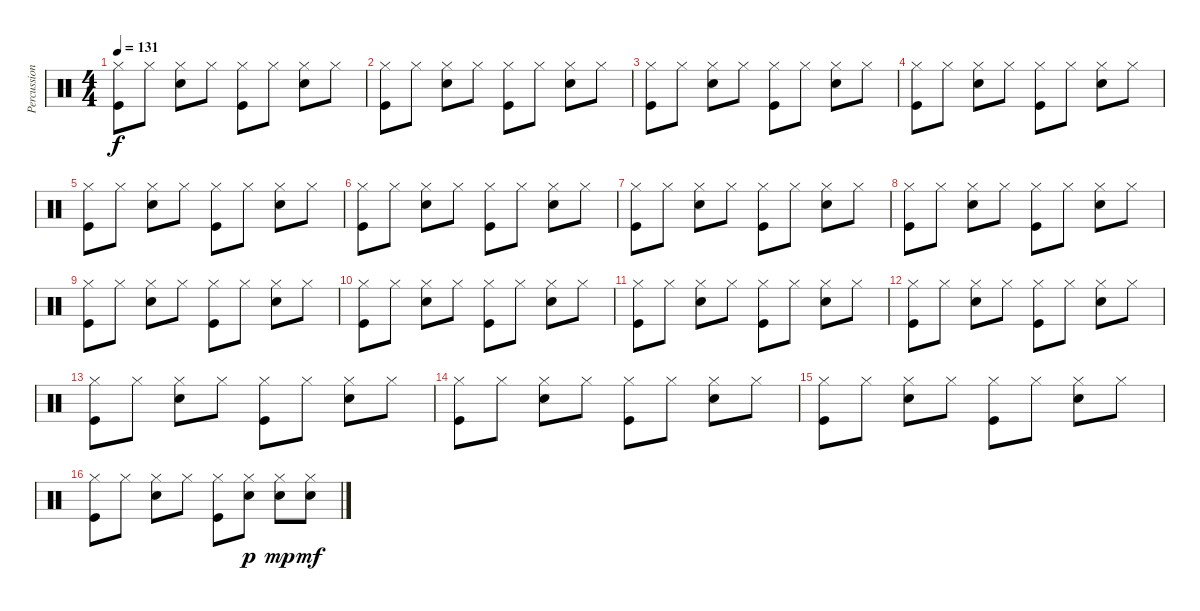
\track ("Percussions" "Percussion") {instrument percussion}
\staff {score}
\articulation defaults
\ts (4 4)
\tempo 131
\clef neutral
\ks c
("Hi-Hat (closed)" "Kick (hit)").8{dy f} "Hi-Hat (closed)".8 ("Hi-Hat (closed)" "Snare (hit) 2").8 "Hi-Hat (closed)".8 ("Hi-Hat (closed)" "Kick (hit)").8 "Hi-Hat (closed)".8 ("Hi-Hat (closed)" "Snare (hit) 2").8 "Hi-Hat (closed)".8 |
("Hi-Hat (closed)" "Kick (hit)").8 "Hi-Hat (closed)".8 ("Hi-Hat (closed)" "Snare (hit) 2").8 "Hi-Hat (closed)".8 ("Hi-Hat (closed)" "Kick (hit)").8 "Hi-Hat (closed)".8 ("Hi-Hat (closed)" "Snare (hit) 2").8 "Hi-Hat (closed)".8 |
("Hi-Hat (closed)" "Kick (hit)").8 "Hi-Hat (closed)".8 ("Hi-Hat (closed)" "Snare (hit) 2").8 "Hi-Hat (closed)".8 ("Hi-Hat (closed)" "Kick (hit)").8 "Hi-Hat (closed)".8 ("Hi-Hat (closed)" "Snare (hit) 2").8 "Hi-Hat (closed)".8 |
("Hi-Hat (closed)" "Kick (hit)").8 "Hi-Hat (closed)".8 ("Hi-Hat (closed)" "Snare (hit) 2").8 "Hi-Hat (closed)".8 ("Hi-Hat (closed)" "Kick (hit)").8 "Hi-Hat (closed)".8 ("Hi-Hat (closed)" "Snare (hit) 2").8 "Hi-Hat (closed)".8 |
("Hi-Hat (closed)" "Kick (hit)").8 "Hi-Hat (closed)".8 ("Hi-Hat (closed)" "Snare (hit) 2").8 "Hi-Hat (closed)".8 ("Hi-Hat (closed)" "Kick (hit)").8 "Hi-Hat (closed)".8 ("Hi-Hat (closed)" "Snare (hit) 2").8 "Hi-Hat (closed)".8 |
("Hi-Hat (closed)" "Kick (hit)").8 "Hi-Hat (closed)".8 ("Hi-Hat (closed)" "Snare (hit) 2").8 "Hi-Hat (closed)".8 ("Hi-Hat (closed)" "Kick (hit)").8 "Hi-Hat (closed)".8 ("Hi-Hat (closed)" "Snare (hit) 2").8 "Hi-Hat (closed)".8 |
("Hi-Hat (closed)" "Kick (hit)").8 "Hi-Hat (closed)".8 ("Hi-Hat (closed)" "Snare (hit) 2").8 "Hi-Hat (closed)".8 ("Hi-Hat (closed)" "Kick (hit)").8 "Hi-Hat (closed)".8 ("Hi-Hat (closed)" "Snare (hit) 2").8 "Hi-Hat (closed)".8 |
("Hi-Hat (closed)" "Kick (hit)").8 "Hi-Hat (closed)".8 ("Hi-Hat (closed)" "Snare (hit) 2").8 "Hi-Hat (closed)".8 ("Hi-Hat (closed)" "Kick (hit)").8 "Hi-Hat (closed)".8 ("Hi-Hat (closed)" "Snare (hit) 2").8 "Hi-Hat (closed)".8 |
("Hi-Hat (closed)" "Kick (hit)").8 "Hi-Hat (closed)".8 ("Hi-Hat (closed)" "Snare (hit) 2").8 "Hi-Hat (closed)".8 ("Hi-Hat (closed)" "Kick (hit)").8 "Hi-Hat (closed)".8 ("Hi-Hat (closed)" "Snare (hit) 2").8 "Hi-Hat (closed)".8 |
("Hi-Hat (closed)" "Kick (hit)").8 "Hi-Hat (closed)".8 ("Hi-Hat (closed)" "Snare (hit) 2").8 "Hi-Hat (closed)".8 ("Hi-Hat (closed)" "Kick (hit)").8 "Hi-Hat (closed)".8 ("Hi-Hat (closed)" "Snare (hit) 2").8 "Hi-Hat (closed)".8 |
("Hi-Hat (closed)" "Kick (hit)").8 "Hi-Hat (closed)".8 ("Hi-Hat (closed)" "Snare (hit) 2").8 "Hi-Hat (closed)".8 ("Hi-Hat (closed)" "Kick (hit)").8 "Hi-Hat (closed)".8 ("Hi-Hat (closed)" "Snare (hit) 2").8 "Hi-Hat (closed)".8 |
("Hi-Hat (closed)" "Kick (hit)").8 "Hi-Hat (closed)".8 ("Hi-Hat (closed)" "Snare (hit) 2").8 "Hi-Hat (closed)".8 ("Hi-Hat (closed)" "Kick (hit)").8 "Hi-Hat (closed)".8 ("Hi-Hat (closed)" "Snare (hit) 2").8 "Hi-Hat (closed)".8 |
("Hi-Hat (closed)" "Kick (hit)").8 "Hi-Hat (closed)".8 ("Hi-Hat (closed)" "Snare (hit) 2").8 "Hi-Hat (closed)".8 ("Hi-Hat (closed)" "Kick (hit)").8 "Hi-Hat (closed)".8 ("Hi-Hat (closed)" "Snare (hit) 2").8 "Hi-Hat (closed)".8 |
("Hi-Hat (closed)" "Kick (hit)").8 "Hi-Hat (closed)".8 ("Hi-Hat (closed)" "Snare (hit) 2").8 "Hi-Hat (closed)".8 ("Hi-Hat (closed)" "Kick (hit)").8 "Hi-Hat (closed)".8 ("Hi-Hat (closed)" "Snare (hit) 2").8 "Hi-Hat (closed)".8 |
("Hi-Hat (closed)" "Kick (hit)").8 "Hi-Hat (closed)".8 ("Hi-Hat (closed)" "Snare (hit) 2").8 "Hi-Hat (closed)".8 ("Hi-Hat (closed)" "Kick (hit)").8 "Hi-Hat (closed)".8 ("Hi-Hat (closed)" "Snare (hit) 2").8 "Hi-Hat (closed)".8 |
("Hi-Hat (closed)" "Kick (hit)").8 "Hi-Hat (closed)".8 ("Hi-Hat (closed)" "Snare (hit) 2").8 "Hi-Hat (closed)".8 ("Hi-Hat (closed)" "Kick (hit)").8 ("Hi-Hat (closed)" "Snare (hit) 2").8{dy p} ("Hi-Hat (closed)" "Snare (hit) 2").8{dy mp} ("Hi-Hat (closed)" "Snare (hit) 2").8{dy mf}
